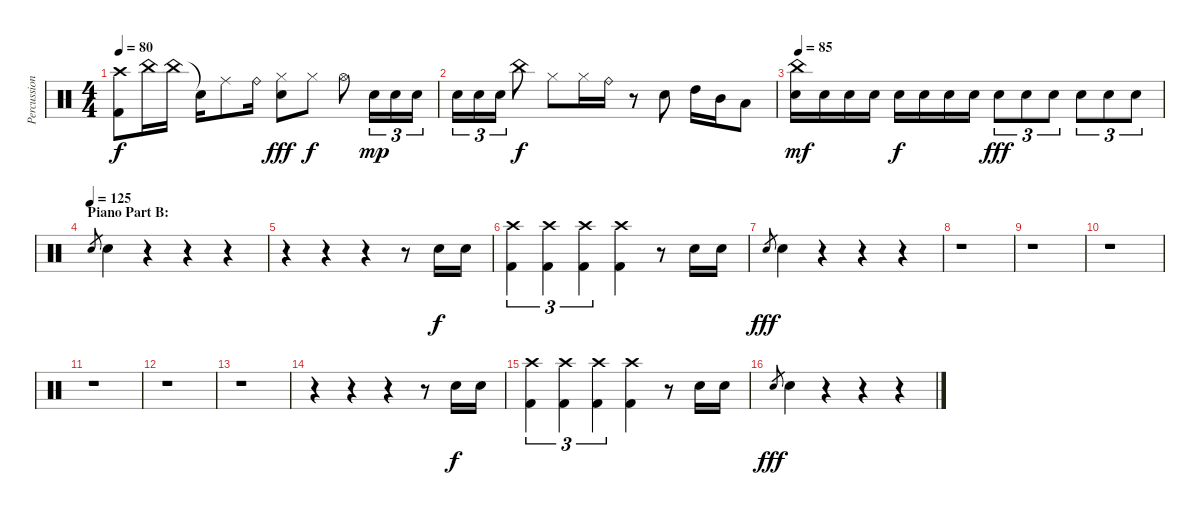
\track ("Percussion" "Percussion") {instrument percussion}
\staff {score}
\articulation defaults
\ts (4 4)
\tempo 80
\clef neutral
\ks c
("Crash high (hit)" "Kick (hit) 2").8{dy f} "China (hit)".16 "China (hit)".16 "Snare (hit)"{t}.16 "Ride (middle)".8 "Ride (bell)".16 ("Hi-Hat (closed)" "Electric Snare (hit)").8{dy fff} "Hi-Hat (closed)".8{dy f} "Hi-Hat (open)".8 "Electric Snare (hit)".16{tu (3 2) dy mp} "Electric Snare (hit)".16{tu (3 2)} "Electric Snare (hit)".16{tu (3 2)} |
"Electric Snare (hit)".16{tu (3 2)} "Electric Snare (hit)".16{tu (3 2)} "Electric Snare (hit)".16{tu (3 2)} "China (hit)".8{dy f} "Hi-Hat (closed)".8 "Hi-Hat (closed)".16 "Ride (bell)".16 r.8 "Electric Snare (hit)".8 "High Tom (hit)".16 "Mid Tom (hit)".16 "Low Tom (hit)".8 |
\tempo 85
("China (hit)" "Electric Snare (hit)").16{dy mf} "Electric Snare (hit)".16 "Electric Snare (hit)".16 "Electric Snare (hit)".16 "Electric Snare (hit)".16{dy f} "Electric Snare (hit)".16 "Electric Snare (hit)".16 "Electric Snare (hit)".16 "Electric Snare (hit)".8{tu (3 2) dy fff} "Electric Snare (hit)".8{tu (3 2)} "Electric Snare (hit)".8{tu (3 2)} "Electric Snare (hit)".8{tu (3 2)} "Electric Snare (hit)".8{tu (3 2)} "Electric Snare (hit)".8{tu (3 2)} |
\section ("" "Piano Part B:")
\tempo (125)
"Electric Snare (hit)".8{gr} "Electric Snare (hit)".4 r.4 r.4 r.4 |
r.4 r.4 r.4 r.8 "Electric Snare (hit)".16{dy f} "Electric Snare (hit)".16 |
("Crash high (hit)" "Kick (hit) 2").4{tu (3 2)} ("Crash high (hit)" "Kick (hit) 2").4{tu (3 2)} ("Crash high (hit)" "Kick (hit) 2").4{tu (3 2)} ("Crash high (hit)" "Kick (hit) 2").4 r.8 "Electric Snare (hit)".16 "Electric Snare (hit)".16 |
"Electric Snare (hit)".8{gr dy fff} "Electric Snare (hit)".4 r.4 r.4 r.4 |
r.1 |
r.1 |
r.1 |
r.1 |
r.1 |
r.1 |
r.4 r.4 r.4 r.8 "Electric Snare (hit)".16{dy f} "Electric Snare (hit)".16 |
("Crash high (hit)" "Kick (hit) 2").4{tu (3 2)} ("Crash high (hit)" "Kick (hit) 2").4{tu (3 2)} ("Crash high (hit)" "Kick (hit) 2").4{tu (3 2)} ("Crash high (hit)" "Kick (hit) 2").4 r.8 "Electric Snare (hit)".16 "Electric Snare (hit)".16 |
"Electric Snare (hit)".8{gr dy fff} "Electric Snare (hit)".4 r.4 r.4 r.4
